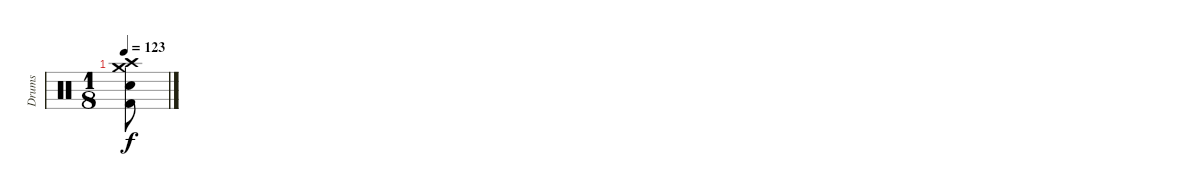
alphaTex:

\track ("Drums" "Drums") {instrument percussion}
\staff {score}
\articulation defaults
\ts (1 8)
\tempo 123
\clef neutral
\ks c
("Crash high (hit)" "Crash medium (hit)" "Snare (hit) 2" "Kick (hit) 2").8{dy f}
